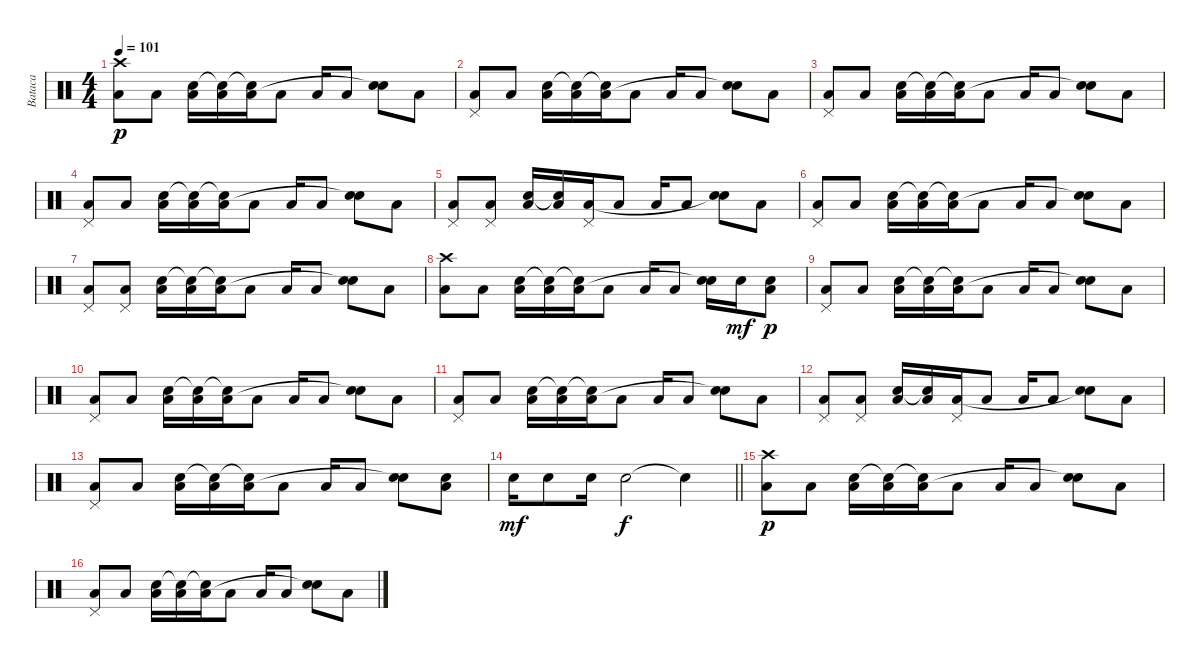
\track ("Bataca" "Bataca") {instrument percussion}
\staff {score}
\articulation defaults
\ts (4 4)
\tempo 101
\clef neutral
\ks c
("Crash high (hit)" "Low Tom (hit)").8{dy p} "Low Tom (hit)".8 ("Snare (hit) 2" "Low Floor Tom (hit)").16 ("Snare (hit)"{t} "Low Floor Tom (hit)").16 ("Snare (hit)"{t} "Low Tom (hit)").16 "Low Tom (hit)".8 "Low Floor Tom (hit)".16 "Low Floor Tom (hit)".8 ("Snare (hit) 2" "Snare (hit)"{t}).8 "Low Floor Tom (hit)".8 |
("Pedal Hi-Hat (hit)" "Low Tom (hit)").8 "Low Tom (hit)".8 ("Snare (hit) 2" "Low Floor Tom (hit)").16 ("Snare (hit)"{t} "Low Floor Tom (hit)").16 ("Snare (hit)"{t} "Low Tom (hit)").16 "Low Tom (hit)".8 "Low Floor Tom (hit)".16 "Low Floor Tom (hit)".8 ("Snare (hit) 2" "Snare (hit)"{t}).8 "Low Floor Tom (hit)".8 |
("Pedal Hi-Hat (hit)" "Low Tom (hit)").8 "Low Tom (hit)".8 ("Snare (hit) 2" "Low Floor Tom (hit)").16 ("Snare (hit)"{t} "Low Floor Tom (hit)").16 ("Snare (hit)"{t} "Low Tom (hit)").16 "Low Tom (hit)".8 "Low Floor Tom (hit)".16 "Low Floor Tom (hit)".8 ("Snare (hit) 2" "Snare (hit)"{t}).8 "Low Floor Tom (hit)".8 |
("Pedal Hi-Hat (hit)" "Low Tom (hit)").8 "Low Tom (hit)".8 ("Snare (hit) 2" "Low Floor Tom (hit)").16 ("Snare (hit)"{t} "Low Floor Tom (hit)").16 ("Snare (hit)"{t} "Low Tom (hit)").16 "Low Tom (hit)".8 "Low Floor Tom (hit)".16 "Low Floor Tom (hit)".8 ("Snare (hit) 2" "Snare (hit)"{t}).8 "Low Floor Tom (hit)".8 |
("Pedal Hi-Hat (hit)" "Low Tom (hit)").8 ("Pedal Hi-Hat (hit)" "Low Tom (hit)").8 ("Snare (hit) 2" "Low Floor Tom (hit)").16 ("Snare (hit)"{t} "Low Floor Tom (hit)").16 ("Pedal Hi-Hat (hit)" "Low Tom (hit)").16 "Low Tom (hit)".8 "Low Floor Tom (hit)".16 "Low Floor Tom (hit)".8 ("Snare (hit) 2" "Snare (hit)"{t}).8 "Low Floor Tom (hit)".8 |
("Pedal Hi-Hat (hit)" "Low Tom (hit)").8 "Low Tom (hit)".8 ("Snare (hit) 2" "Low Floor Tom (hit)").16 ("Snare (hit)"{t} "Low Floor Tom (hit)").16 ("Snare (hit)"{t} "Low Tom (hit)").16 "Low Tom (hit)".8 "Low Floor Tom (hit)".16 "Low Floor Tom (hit)".8 ("Snare (hit) 2" "Snare (hit)"{t}).8 "Low Floor Tom (hit)".8 |
("Pedal Hi-Hat (hit)" "Low Tom (hit)").8 ("Pedal Hi-Hat (hit)" "Low Tom (hit)").8 ("Snare (hit) 2" "Low Floor Tom (hit)").16 ("Snare (hit)"{t} "Low Floor Tom (hit)").16 ("Snare (hit)"{t} "Low Tom (hit)").16 "Low Tom (hit)".8 "Low Floor Tom (hit)".16 "Low Floor Tom (hit)".8 ("Snare (hit) 2" "Snare (hit)"{t}).8 "Low Floor Tom (hit)".8 |
("Crash high (hit)" "Low Tom (hit)").8 "Low Tom (hit)".8 ("Snare (hit) 2" "Low Floor Tom (hit)").16 ("Snare (hit)"{t} "Low Floor Tom (hit)").16 ("Snare (hit)"{t} "Low Tom (hit)").16 "Low Tom (hit)".8 "Low Floor Tom (hit)".16 "Low Floor Tom (hit)".8 ("Snare (hit) 2" "Snare (hit)"{t}).16 "Snare (hit) 2".16{dy mf} ("Snare (hit) 2" "Low Floor Tom (hit)").8{dy p} |
("Pedal Hi-Hat (hit)" "Low Tom (hit)").8 "Low Tom (hit)".8 ("Snare (hit) 2" "Low Floor Tom (hit)").16 ("Snare (hit)"{t} "Low Floor Tom (hit)").16 ("Snare (hit)"{t} "Low Tom (hit)").16 "Low Tom (hit)".8 "Low Floor Tom (hit)".16 "Low Floor Tom (hit)".8 ("Snare (hit) 2" "Snare (hit)"{t}).8 "Low Floor Tom (hit)".8 |
("Pedal Hi-Hat (hit)" "Low Tom (hit)").8 "Low Tom (hit)".8 ("Snare (hit) 2" "Low Floor Tom (hit)").16 ("Snare (hit)"{t} "Low Floor Tom (hit)").16 ("Snare (hit)"{t} "Low Tom (hit)").16 "Low Tom (hit)".8 "Low Floor Tom (hit)".16 "Low Floor Tom (hit)".8 ("Snare (hit) 2" "Snare (hit)"{t}).8 "Low Floor Tom (hit)".8 |
("Pedal Hi-Hat (hit)" "Low Tom (hit)").8 "Low Tom (hit)".8 ("Snare (hit) 2" "Low Floor Tom (hit)").16 ("Snare (hit)"{t} "Low Floor Tom (hit)").16 ("Snare (hit)"{t} "Low Tom (hit)").16 "Low Tom (hit)".8 "Low Floor Tom (hit)".16 "Low Floor Tom (hit)".8 ("Snare (hit) 2" "Snare (hit)"{t}).8 "Low Floor Tom (hit)".8 |
("Pedal Hi-Hat (hit)" "Low Tom (hit)").8 ("Pedal Hi-Hat (hit)" "Low Tom (hit)").8 ("Snare (hit) 2" "Low Floor Tom (hit)").16 ("Snare (hit)"{t} "Low Floor Tom (hit)").16 ("Pedal Hi-Hat (hit)" "Low Tom (hit)").16 "Low Tom (hit)".8 "Low Floor Tom (hit)".16 "Low Floor Tom (hit)".8 ("Snare (hit) 2" "Snare (hit)"{t}).8 "Low Floor Tom (hit)".8 |
("Pedal Hi-Hat (hit)" "Low Tom (hit)").8 "Low Tom (hit)".8 ("Snare (hit) 2" "Low Floor Tom (hit)").16 ("Snare (hit)"{t} "Low Floor Tom (hit)").16 ("Snare (hit)"{t} "Low Tom (hit)").16 "Low Tom (hit)".8 "Low Floor Tom (hit)".16 "Low Floor Tom (hit)".8 ("Snare (hit) 2" "Snare (hit)"{t}).8 ("Snare (hit) 2" "Low Floor Tom (hit)").8 |
\barLineRight lightlight "Snare (hit) 2".16{dy mf} "Snare (hit) 2".8 "Snare (hit) 2".16 "Snare (hit) 2".2{dy f} "Snare (hit)"{t}.4
|
\section ("" "")
("Crash high (hit)" "Low Tom (hit)").8{dy p} "Low Tom (hit)".8 ("Snare (hit) 2" "Low Floor Tom (hit)").16 ("Snare (hit)"{t} "Low Floor Tom (hit)").16 ("Snare (hit)"{t} "Low Tom (hit)").16 "Low Tom (hit)".8 "Low Floor Tom (hit)".16 "Low Floor Tom (hit)".8 ("Snare (hit) 2" "Snare (hit)"{t}).8 "Low Floor Tom (hit)".8 |
("Pedal Hi-Hat (hit)" "Low Tom (hit)").8 "Low Tom (hit)".8 ("Snare (hit) 2" "Low Floor Tom (hit)").16 ("Snare (hit)"{t} "Low Floor Tom (hit)").16 ("Snare (hit)"{t} "Low Tom (hit)").16 "Low Tom (hit)".8 "Low Floor Tom (hit)".16 "Low Floor Tom (hit)".8 ("Snare (hit) 2" "Snare (hit)"{t}).8 "Low Floor Tom (hit)".8
